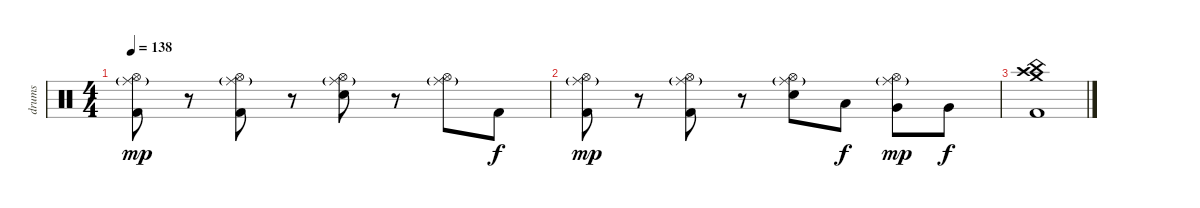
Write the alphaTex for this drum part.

\track ("drums" "drums") {instrument percussion}
\staff {score}
\articulation defaults
\ts (4 4)
\tempo 138
\clef neutral
\ks c
("Kick (hit) 2" "Ride (middle)"{g} "Hi-Hat (open)").8{dy mp} r.8 ("Kick (hit) 2" "Ride (middle)"{g} "Hi-Hat (open)").8 r.8 ("Electric Snare (hit)" "Ride (middle)"{g} "Hi-Hat (open)").8 r.8 ("Ride (middle)"{g} "Hi-Hat (open)").8 "Kick (hit) 2".8{dy f} |
("Kick (hit) 2" "Ride (middle)"{g} "Hi-Hat (open)").8{dy mp} r.8 ("Kick (hit) 2" "Ride (middle)"{g} "Hi-Hat (open)").8 r.8 ("Electric Snare (hit)"{tr (40 16)} "Ride (middle)"{g} "Hi-Hat (open)").8 "Low Tom (hit)".8{dy f} ("Very Low Tom (hit)" "Ride (middle)"{g} "Hi-Hat (open)").8{dy mp} "Very Low Tom (hit)".8{dy f} |
("Kick (hit) 2" "China (hit)" "Crash medium (hit)" "Crash high (hit)").1
